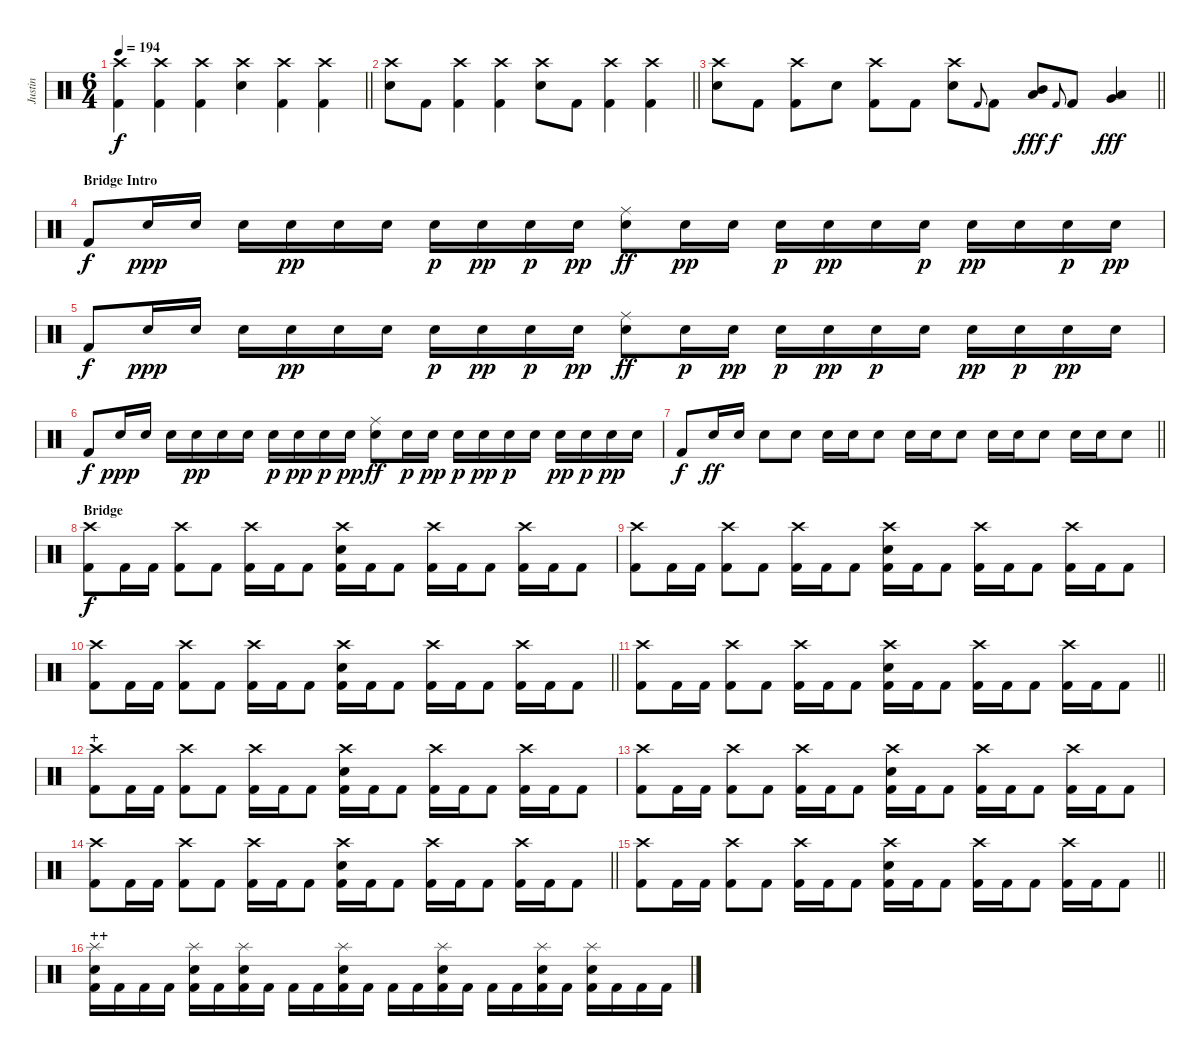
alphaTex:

\track ("Justin" "Justin") {instrument percussion}
\staff {score}
\articulation defaults
\ts (6 4)
\tempo 194
\clef neutral
\barLineRight lightlight
\ks c
("Crash high (hit)" "Kick (hit) 2").4{dy f} ("Crash high (hit)" "Kick (hit) 2").4 ("Crash high (hit)" "Kick (hit) 2").4 ("Crash high (hit)" "Electric Snare (hit)").4 ("Crash high (hit)" "Kick (hit) 2").4 ("Crash high (hit)" "Kick (hit) 2").4 |
\barLineRight lightlight
("Crash high (hit)" "Electric Snare (hit)").8 "Kick (hit) 2".8 ("Crash high (hit)" "Kick (hit) 2").4 ("Crash high (hit)" "Kick (hit) 2").4 ("Crash high (hit)" "Electric Snare (hit)").8 "Kick (hit) 2".8 ("Crash high (hit)" "Kick (hit) 2").4 ("Crash high (hit)" "Kick (hit) 2").4 |
\barLineRight lightlight
("Crash high (hit)" "Electric Snare (hit)").8 "Kick (hit) 2".8 ("Crash high (hit)" "Kick (hit) 2").8 "Electric Snare (hit)".8 ("Crash high (hit)" "Kick (hit) 2").8 "Kick (hit) 2".8 ("Crash high (hit)" "Electric Snare (hit)").8 "Kick (hit) 2".8{gr onbeat} "Kick (hit) 2".8 ("Mid Tom (hit)" "Low Tom (hit)").8{bu 120 dy fff} "Kick (hit) 2".8{gr onbeat dy f} "Kick (hit) 2".8 ("Low Tom (hit)" "Very Low Tom (hit)").4{bu 120 dy fff} |
\section ("" "Bridge Intro")
"Kick (hit) 2".8{dy f} "Electric Snare (hit)".16{dy ppp} "Electric Snare (hit)".16 "Electric Snare (hit)".16 "Electric Snare (hit)".16{dy pp} "Electric Snare (hit)".16 "Electric Snare (hit)".16 "Electric Snare (hit)".16{dy p} "Electric Snare (hit)".16{dy pp} "Electric Snare (hit)".16{dy p} "Electric Snare (hit)".16{dy pp} ("Ride (middle)" "Electric Snare (hit)").8{dy ff} "Electric Snare (hit)".16{dy pp} "Electric Snare (hit)".16 "Electric Snare (hit)".16{dy p} "Electric Snare (hit)".16{dy pp} "Electric Snare (hit)".16 "Electric Snare (hit)".16{dy p} "Electric Snare (hit)".16{dy pp} "Electric Snare (hit)".16 "Electric Snare (hit)".16{dy p} "Electric Snare (hit)".16{dy pp} |
"Kick (hit) 2".8{dy f} "Electric Snare (hit)".16{dy ppp} "Electric Snare (hit)".16 "Electric Snare (hit)".16 "Electric Snare (hit)".16{dy pp} "Electric Snare (hit)".16 "Electric Snare (hit)".16 "Electric Snare (hit)".16{dy p} "Electric Snare (hit)".16{dy pp} "Electric Snare (hit)".16{dy p} "Electric Snare (hit)".16{dy pp} ("Ride (middle)" "Electric Snare (hit)").8{dy ff} "Electric Snare (hit)".16{dy p} "Electric Snare (hit)".16{dy pp} "Electric Snare (hit)".16{dy p} "Electric Snare (hit)".16{dy pp} "Electric Snare (hit)".16{dy p} "Electric Snare (hit)".16 "Electric Snare (hit)".16{dy pp} "Electric Snare (hit)".16{dy p} "Electric Snare (hit)".16{dy pp} "Electric Snare (hit)".16 |
"Kick (hit) 2".8{dy f} "Electric Snare (hit)".16{dy ppp} "Electric Snare (hit)".16 "Electric Snare (hit)".16 "Electric Snare (hit)".16{dy pp} "Electric Snare (hit)".16 "Electric Snare (hit)".16 "Electric Snare (hit)".16{dy p} "Electric Snare (hit)".16{dy pp} "Electric Snare (hit)".16{dy p} "Electric Snare (hit)".16{dy pp} ("Ride (middle)" "Electric Snare (hit)").8{dy ff} "Electric Snare (hit)".16{dy p} "Electric Snare (hit)".16{dy pp} "Electric Snare (hit)".16{dy p} "Electric Snare (hit)".16{dy pp} "Electric Snare (hit)".16{dy p} "Electric Snare (hit)".16 "Electric Snare (hit)".16{dy pp} "Electric Snare (hit)".16{dy p} "Electric Snare (hit)".16{dy pp} "Electric Snare (hit)".16 |
\barLineRight lightlight "Kick (hit) 2".8{dy f} "Electric Snare (hit)".16{dy ff} "Electric Snare (hit)".16 "Electric Snare (hit)".8 "Electric Snare (hit)".8 "Electric Snare (hit)".16 "Electric Snare (hit)".16 "Electric Snare (hit)".8 "Electric Snare (hit)".16 "Electric Snare (hit)".16 "Electric Snare (hit)".8 "Electric Snare (hit)".16 "Electric Snare (hit)".16 "Electric Snare (hit)".8 "Electric Snare (hit)".16 "Electric Snare (hit)".16 "Electric Snare (hit)".8
|
\section ("" "Bridge")
("Crash high (hit)" "Kick (hit) 2").8{dy f} "Kick (hit) 2".16 "Kick (hit) 2".16 ("Crash high (hit)" "Kick (hit) 2").8 "Kick (hit) 2".8 ("Crash high (hit)" "Kick (hit) 2").16 "Kick (hit) 2".16 "Kick (hit) 2".8 ("Crash high (hit)" "Electric Snare (hit)" "Kick (hit) 2").16 "Kick (hit) 2".16 "Kick (hit) 2".8 ("Crash high (hit)" "Kick (hit) 2").16 "Kick (hit) 2".16 "Kick (hit) 2".8 ("Crash high (hit)" "Kick (hit) 2").16 "Kick (hit) 2".16 "Kick (hit) 2".8 |
("Crash high (hit)" "Kick (hit) 2").8 "Kick (hit) 2".16 "Kick (hit) 2".16 ("Crash high (hit)" "Kick (hit) 2").8 "Kick (hit) 2".8 ("Crash high (hit)" "Kick (hit) 2").16 "Kick (hit) 2".16 "Kick (hit) 2".8 ("Crash high (hit)" "Electric Snare (hit)" "Kick (hit) 2").16 "Kick (hit) 2".16 "Kick (hit) 2".8 ("Crash high (hit)" "Kick (hit) 2").16 "Kick (hit) 2".16 "Kick (hit) 2".8 ("Crash high (hit)" "Kick (hit) 2").16 "Kick (hit) 2".16 "Kick (hit) 2".8 |
\barLineRight lightlight
("Crash high (hit)" "Kick (hit) 2").8 "Kick (hit) 2".16 "Kick (hit) 2".16 ("Crash high (hit)" "Kick (hit) 2").8 "Kick (hit) 2".8 ("Crash high (hit)" "Kick (hit) 2").16 "Kick (hit) 2".16 "Kick (hit) 2".8 ("Crash high (hit)" "Electric Snare (hit)" "Kick (hit) 2").16 "Kick (hit) 2".16 "Kick (hit) 2".8 ("Crash high (hit)" "Kick (hit) 2").16 "Kick (hit) 2".16 "Kick (hit) 2".8 ("Crash high (hit)" "Kick (hit) 2").16 "Kick (hit) 2".16 "Kick (hit) 2".8 |
\barLineRight lightlight
("Crash high (hit)" "Kick (hit) 2").8 "Kick (hit) 2".16 "Kick (hit) 2".16 ("Crash high (hit)" "Kick (hit) 2").8 "Kick (hit) 2".8 ("Crash high (hit)" "Kick (hit) 2").16 "Kick (hit) 2".16 "Kick (hit) 2".8 ("Crash high (hit)" "Electric Snare (hit)" "Kick (hit) 2").16 "Kick (hit) 2".16 "Kick (hit) 2".8 ("Crash high (hit)" "Kick (hit) 2").16 "Kick (hit) 2".16 "Kick (hit) 2".8 ("Crash high (hit)" "Kick (hit) 2").16 "Kick (hit) 2".16 "Kick (hit) 2".8 |
\section ("" "+")
("Crash high (hit)" "Kick (hit) 2").8 "Kick (hit) 2".16 "Kick (hit) 2".16 ("Crash high (hit)" "Kick (hit) 2").8 "Kick (hit) 2".8 ("Crash high (hit)" "Kick (hit) 2").16 "Kick (hit) 2".16 "Kick (hit) 2".8 ("Crash high (hit)" "Electric Snare (hit)" "Kick (hit) 2").16 "Kick (hit) 2".16 "Kick (hit) 2".8 ("Crash high (hit)" "Kick (hit) 2").16 "Kick (hit) 2".16 "Kick (hit) 2".8 ("Crash high (hit)" "Kick (hit) 2").16 "Kick (hit) 2".16 "Kick (hit) 2".8 |
("Crash high (hit)" "Kick (hit) 2").8 "Kick (hit) 2".16 "Kick (hit) 2".16 ("Crash high (hit)" "Kick (hit) 2").8 "Kick (hit) 2".8 ("Crash high (hit)" "Kick (hit) 2").16 "Kick (hit) 2".16 "Kick (hit) 2".8 ("Crash high (hit)" "Electric Snare (hit)" "Kick (hit) 2").16 "Kick (hit) 2".16 "Kick (hit) 2".8 ("Crash high (hit)" "Kick (hit) 2").16 "Kick (hit) 2".16 "Kick (hit) 2".8 ("Crash high (hit)" "Kick (hit) 2").16 "Kick (hit) 2".16 "Kick (hit) 2".8 |
\barLineRight lightlight
("Crash high (hit)" "Kick (hit) 2").8 "Kick (hit) 2".16 "Kick (hit) 2".16 ("Crash high (hit)" "Kick (hit) 2").8 "Kick (hit) 2".8 ("Crash high (hit)" "Kick (hit) 2").16 "Kick (hit) 2".16 "Kick (hit) 2".8 ("Crash high (hit)" "Electric Snare (hit)" "Kick (hit) 2").16 "Kick (hit) 2".16 "Kick (hit) 2".8 ("Crash high (hit)" "Kick (hit) 2").16 "Kick (hit) 2".16 "Kick (hit) 2".8 ("Crash high (hit)" "Kick (hit) 2").16 "Kick (hit) 2".16 "Kick (hit) 2".8 |
\barLineRight lightlight
("Crash high (hit)" "Kick (hit) 2").8 "Kick (hit) 2".16 "Kick (hit) 2".16 ("Crash high (hit)" "Kick (hit) 2").8 "Kick (hit) 2".8 ("Crash high (hit)" "Kick (hit) 2").16 "Kick (hit) 2".16 "Kick (hit) 2".8 ("Crash high (hit)" "Electric Snare (hit)" "Kick (hit) 2").16 "Kick (hit) 2".16 "Kick (hit) 2".8 ("Crash high (hit)" "Kick (hit) 2").16 "Kick (hit) 2".16 "Kick (hit) 2".8 ("Crash high (hit)" "Kick (hit) 2").16 "Kick (hit) 2".16 "Kick (hit) 2".8 |
\section ("" "++")
("Splash (hit)" "Electric Snare (hit)" "Kick (hit) 2").16 "Kick (hit) 2".16 "Kick (hit) 2".16 "Kick (hit) 2".16 ("Splash (hit)" "Electric Snare (hit)" "Kick (hit) 2").16 "Kick (hit) 2".16 ("Splash (hit)" "Electric Snare (hit)" "Kick (hit) 2").16 "Kick (hit) 2".16 "Kick (hit) 2".16 "Kick (hit) 2".16 ("Splash (hit)" "Electric Snare (hit)" "Kick (hit) 2").16 "Kick (hit) 2".16 "Kick (hit) 2".16 "Kick (hit) 2".16 ("Splash (hit)" "Electric Snare (hit)" "Kick (hit) 2").16 "Kick (hit) 2".16 "Kick (hit) 2".16 "Kick (hit) 2".16 ("Splash (hit)" "Electric Snare (hit)" "Kick (hit) 2").16 "Kick (hit) 2".16 ("Splash (hit)" "Electric Snare (hit)" "Kick (hit) 2").16 "Kick (hit) 2".16 "Kick (hit) 2".16 "Kick (hit) 2".16
